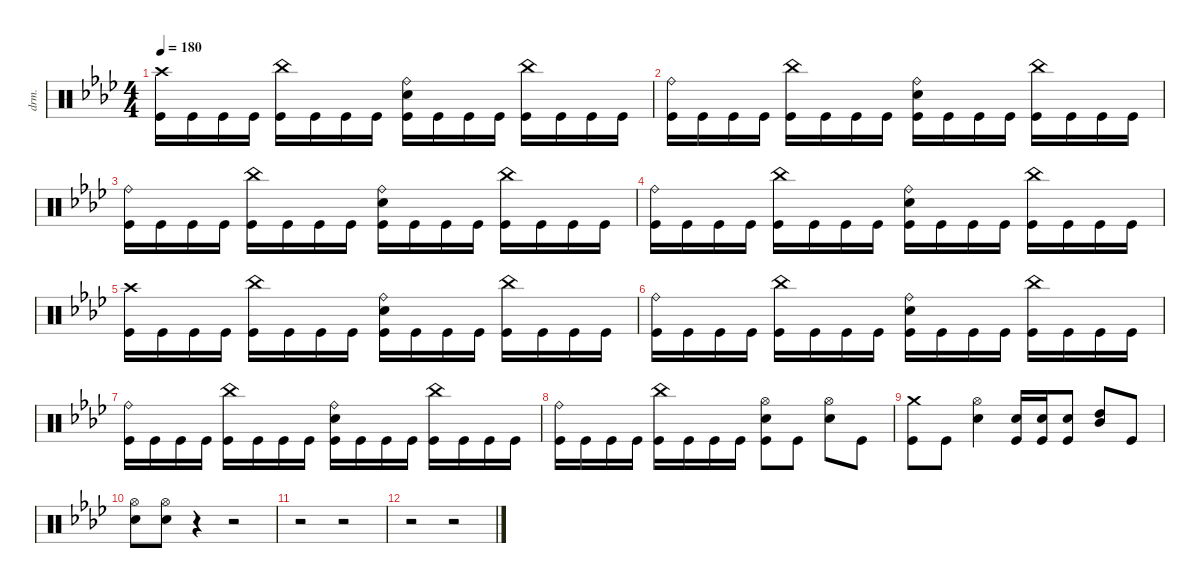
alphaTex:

\defaultSystemsLayout 4
\hideDynamics
\bracketExtendMode nobrackets
\track ("Percussion" "drm.") {instrument percussion}
\staff {score}
\articulation defaults
\ts (4 4)
\tempo 180
\clef neutral
\ks fminor
("Crash high (hit)"{acc forcenatural} "Kick (hit)"{acc forcenatural}).16{dy f beam Down} "Kick (hit)"{acc forcenatural}.16{beam Down} "Kick (hit)"{acc forcenatural}.16{beam Down} "Kick (hit)"{acc forcenatural}.16{beam Down} ("China (hit)"{acc forcenatural} "Kick (hit)"{acc forcenatural}).16{beam Down} "Kick (hit)"{acc forcenatural}.16{beam Down} "Kick (hit)"{acc forcenatural}.16{beam Down} "Kick (hit)"{acc forcenatural}.16{beam Down} ("Ride (bell)"{acc forcenatural} "Snare (hit) 2"{acc forcenatural} "Kick (hit)"{acc forcenatural}).16{beam Down} "Kick (hit)"{acc forcenatural}.16{beam Down} "Kick (hit)"{acc forcenatural}.16{beam Down} "Kick (hit)"{acc forcenatural}.16{beam Down} ("China (hit)"{acc forcenatural} "Kick (hit)"{acc forcenatural}).16{beam Down} "Kick (hit)"{acc forcenatural}.16{beam Down} "Kick (hit)"{acc forcenatural}.16{beam Down} "Kick (hit)"{acc forcenatural}.16{beam Down} |
("Ride (bell)"{acc forcenatural} "Kick (hit)"{acc forcenatural}).16{beam Down} "Kick (hit)"{acc forcenatural}.16{beam Down} "Kick (hit)"{acc forcenatural}.16{beam Down} "Kick (hit)"{acc forcenatural}.16{beam Down} ("China (hit)"{acc forcenatural} "Kick (hit)"{acc forcenatural}).16{beam Down} "Kick (hit)"{acc forcenatural}.16{beam Down} "Kick (hit)"{acc forcenatural}.16{beam Down} "Kick (hit)"{acc forcenatural}.16{beam Down} ("Ride (bell)"{acc forcenatural} "Snare (hit) 2"{acc forcenatural} "Kick (hit)"{acc forcenatural}).16{beam Down} "Kick (hit)"{acc forcenatural}.16{beam Down} "Kick (hit)"{acc forcenatural}.16{beam Down} "Kick (hit)"{acc forcenatural}.16{beam Down} ("China (hit)"{acc forcenatural} "Kick (hit)"{acc forcenatural}).16{beam Down} "Kick (hit)"{acc forcenatural}.16{beam Down} "Kick (hit)"{acc forcenatural}.16{beam Down} "Kick (hit)"{acc forcenatural}.16{beam Down} |
("Ride (bell)"{acc forcenatural} "Kick (hit)"{acc forcenatural}).16{beam Down} "Kick (hit)"{acc forcenatural}.16{beam Down} "Kick (hit)"{acc forcenatural}.16{beam Down} "Kick (hit)"{acc forcenatural}.16{beam Down} ("China (hit)"{acc forcenatural} "Kick (hit)"{acc forcenatural}).16{beam Down} "Kick (hit)"{acc forcenatural}.16{beam Down} "Kick (hit)"{acc forcenatural}.16{beam Down} "Kick (hit)"{acc forcenatural}.16{beam Down} ("Ride (bell)"{acc forcenatural} "Snare (hit) 2"{acc forcenatural} "Kick (hit)"{acc forcenatural}).16{beam Down} "Kick (hit)"{acc forcenatural}.16{beam Down} "Kick (hit)"{acc forcenatural}.16{beam Down} "Kick (hit)"{acc forcenatural}.16{beam Down} ("China (hit)"{acc forcenatural} "Kick (hit)"{acc forcenatural}).16{beam Down} "Kick (hit)"{acc forcenatural}.16{beam Down} "Kick (hit)"{acc forcenatural}.16{beam Down} "Kick (hit)"{acc forcenatural}.16{beam Down} |
("Ride (bell)"{acc forcenatural} "Kick (hit)"{acc forcenatural}).16{beam Down} "Kick (hit)"{acc forcenatural}.16{beam Down} "Kick (hit)"{acc forcenatural}.16{beam Down} "Kick (hit)"{acc forcenatural}.16{beam Down} ("China (hit)"{acc forcenatural} "Kick (hit)"{acc forcenatural}).16{beam Down} "Kick (hit)"{acc forcenatural}.16{beam Down} "Kick (hit)"{acc forcenatural}.16{beam Down} "Kick (hit)"{acc forcenatural}.16{beam Down} ("Ride (bell)"{acc forcenatural} "Snare (hit) 2"{acc forcenatural} "Kick (hit)"{acc forcenatural}).16{beam Down} "Kick (hit)"{acc forcenatural}.16{beam Down} "Kick (hit)"{acc forcenatural}.16{beam Down} "Kick (hit)"{acc forcenatural}.16{beam Down} ("China (hit)"{acc forcenatural} "Kick (hit)"{acc forcenatural}).16{beam Down} "Kick (hit)"{acc forcenatural}.16{beam Down} "Kick (hit)"{acc forcenatural}.16{beam Down} "Kick (hit)"{acc forcenatural}.16{beam Down} |
("Crash high (hit)"{acc forcenatural} "Kick (hit)"{acc forcenatural}).16{beam Down} "Kick (hit)"{acc forcenatural}.16{beam Down} "Kick (hit)"{acc forcenatural}.16{beam Down} "Kick (hit)"{acc forcenatural}.16{beam Down} ("China (hit)"{acc forcenatural} "Kick (hit)"{acc forcenatural}).16{beam Down} "Kick (hit)"{acc forcenatural}.16{beam Down} "Kick (hit)"{acc forcenatural}.16{beam Down} "Kick (hit)"{acc forcenatural}.16{beam Down} ("Ride (bell)"{acc forcenatural} "Snare (hit) 2"{acc forcenatural} "Kick (hit)"{acc forcenatural}).16{beam Down} "Kick (hit)"{acc forcenatural}.16{beam Down} "Kick (hit)"{acc forcenatural}.16{beam Down} "Kick (hit)"{acc forcenatural}.16{beam Down} ("China (hit)"{acc forcenatural} "Kick (hit)"{acc forcenatural}).16{beam Down} "Kick (hit)"{acc forcenatural}.16{beam Down} "Kick (hit)"{acc forcenatural}.16{beam Down} "Kick (hit)"{acc forcenatural}.16{beam Down} |
("Ride (bell)"{acc forcenatural} "Kick (hit)"{acc forcenatural}).16{beam Down} "Kick (hit)"{acc forcenatural}.16{beam Down} "Kick (hit)"{acc forcenatural}.16{beam Down} "Kick (hit)"{acc forcenatural}.16{beam Down} ("China (hit)"{acc forcenatural} "Kick (hit)"{acc forcenatural}).16{beam Down} "Kick (hit)"{acc forcenatural}.16{beam Down} "Kick (hit)"{acc forcenatural}.16{beam Down} "Kick (hit)"{acc forcenatural}.16{beam Down} ("Ride (bell)"{acc forcenatural} "Snare (hit) 2"{acc forcenatural} "Kick (hit)"{acc forcenatural}).16{beam Down} "Kick (hit)"{acc forcenatural}.16{beam Down} "Kick (hit)"{acc forcenatural}.16{beam Down} "Kick (hit)"{acc forcenatural}.16{beam Down} ("China (hit)"{acc forcenatural} "Kick (hit)"{acc forcenatural}).16{beam Down} "Kick (hit)"{acc forcenatural}.16{beam Down} "Kick (hit)"{acc forcenatural}.16{beam Down} "Kick (hit)"{acc forcenatural}.16{beam Down} |
("Ride (bell)"{acc forcenatural} "Kick (hit)"{acc forcenatural}).16{beam Down} "Kick (hit)"{acc forcenatural}.16{beam Down} "Kick (hit)"{acc forcenatural}.16{beam Down} "Kick (hit)"{acc forcenatural}.16{beam Down} ("China (hit)"{acc forcenatural} "Kick (hit)"{acc forcenatural}).16{beam Down} "Kick (hit)"{acc forcenatural}.16{beam Down} "Kick (hit)"{acc forcenatural}.16{beam Down} "Kick (hit)"{acc forcenatural}.16{beam Down} ("Ride (bell)"{acc forcenatural} "Snare (hit) 2"{acc forcenatural} "Kick (hit)"{acc forcenatural}).16{beam Down} "Kick (hit)"{acc forcenatural}.16{beam Down} "Kick (hit)"{acc forcenatural}.16{beam Down} "Kick (hit)"{acc forcenatural}.16{beam Down} ("China (hit)"{acc forcenatural} "Kick (hit)"{acc forcenatural}).16{beam Down} "Kick (hit)"{acc forcenatural}.16{beam Down} "Kick (hit)"{acc forcenatural}.16{beam Down} "Kick (hit)"{acc forcenatural}.16{beam Down} |
("Ride (bell)"{acc forcenatural} "Kick (hit)"{acc forcenatural}).16{beam Down} "Kick (hit)"{acc forcenatural}.16{beam Down} "Kick (hit)"{acc forcenatural}.16{beam Down} "Kick (hit)"{acc forcenatural}.16{beam Down} ("China (hit)"{acc forcenatural} "Kick (hit)"{acc forcenatural}).16{beam Down} "Kick (hit)"{acc forcenatural}.16{beam Down} "Kick (hit)"{acc forcenatural}.16{beam Down} "Kick (hit)"{acc forcenatural}.16{beam Down} ("Hi-Hat (open)"{acc forcenatural} "Snare (hit) 2"{acc forcenatural} "Kick (hit)"{acc forcenatural}).8{beam Down} "Kick (hit)"{acc forcenatural}.8{beam Down} ("Hi-Hat (open)"{acc forcenatural} "Snare (hit) 2"{acc forcenatural}).8{beam Down} "Kick (hit)"{acc forcenatural}.8{beam Down} |
("Crash medium (hit)"{acc forcenatural} "Kick (hit)"{acc forcenatural}).8{beam Down} "Kick (hit)"{acc forcenatural}.8{beam Down} ("Hi-Hat (open)"{acc forcenatural} "Snare (hit) 2"{acc forcenatural}).4{beam Down} ("Snare (hit) 2"{acc forcenatural} "Kick (hit)"{acc forcenatural}).16{beam Up} ("Snare (hit) 2"{acc forcenatural} "Kick (hit)"{acc forcenatural}).16{beam Up} ("Snare (hit) 2"{acc forcenatural} "Kick (hit)"{acc forcenatural}).8{beam Up} ("Mid Tom (hit)"{acc forcenatural} "High Tom (hit)"{acc forcenatural}).8{beam Up} "Kick (hit)"{acc forcenatural}.8{beam Up} |
("Hi-Hat (open)"{acc forcenatural} "Snare (hit) 2"{acc forcenatural}).8{beam Down} ("Hi-Hat (open)"{acc forcenatural} "Snare (hit) 2"{acc forcenatural}).8{beam Down} r.4{beam Down} r.2{beam Down} |
r.2{beam Down} r.2{beam Down} |
r.2{beam Down} r.2{beam Down}
